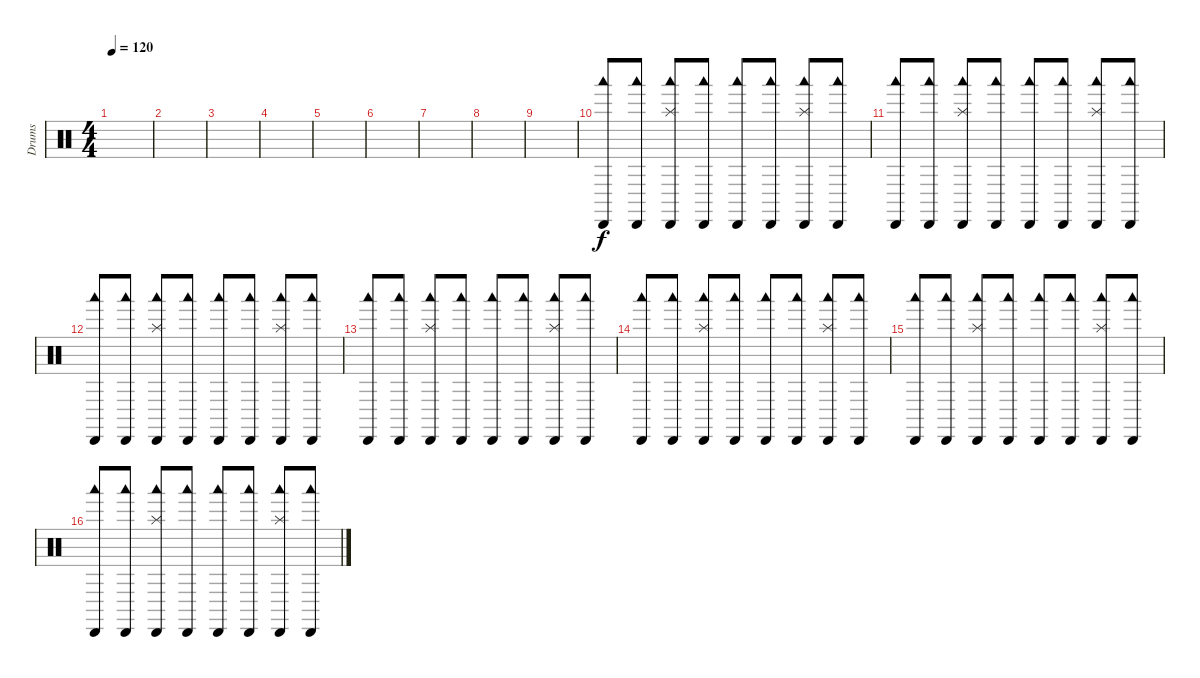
\track ("Drums" "Drums") {instrument percussion}
\staff {score}
\articulation defaults
\ts (4 4)
\tempo 120
\clef neutral
\ks c
|
|
|
|
|
|
|
|
|
("Woodblock low (hit)" "Cabasa (hit)").8 ("Woodblock low (hit)" "Cabasa (hit)").8 ("Woodblock low (hit)" "Splash (hit)" "Cabasa (hit)").8 ("Woodblock low (hit)" "Cabasa (hit)").8 ("Woodblock low (hit)" "Cabasa (hit)").8 ("Woodblock low (hit)" "Cabasa (hit)").8 ("Woodblock low (hit)" "Splash (hit)" "Cabasa (hit)").8 ("Woodblock low (hit)" "Cabasa (hit)").8 |
("Woodblock low (hit)" "Cabasa (hit)").8 ("Woodblock low (hit)" "Cabasa (hit)").8 ("Woodblock low (hit)" "Splash (hit)" "Cabasa (hit)").8 ("Woodblock low (hit)" "Cabasa (hit)").8 ("Woodblock low (hit)" "Cabasa (hit)").8 ("Woodblock low (hit)" "Cabasa (hit)").8 ("Woodblock low (hit)" "Splash (hit)" "Cabasa (hit)").8 ("Woodblock low (hit)" "Cabasa (hit)").8 |
("Woodblock low (hit)" "Cabasa (hit)").8 ("Woodblock low (hit)" "Cabasa (hit)").8 ("Woodblock low (hit)" "Splash (hit)" "Cabasa (hit)").8 ("Woodblock low (hit)" "Cabasa (hit)").8 ("Woodblock low (hit)" "Cabasa (hit)").8 ("Woodblock low (hit)" "Cabasa (hit)").8 ("Woodblock low (hit)" "Splash (hit)" "Cabasa (hit)").8 ("Woodblock low (hit)" "Cabasa (hit)").8 |
("Woodblock low (hit)" "Cabasa (hit)").8 ("Woodblock low (hit)" "Cabasa (hit)").8 ("Woodblock low (hit)" "Splash (hit)" "Cabasa (hit)").8 ("Woodblock low (hit)" "Cabasa (hit)").8 ("Woodblock low (hit)" "Cabasa (hit)").8 ("Woodblock low (hit)" "Cabasa (hit)").8 ("Woodblock low (hit)" "Splash (hit)" "Cabasa (hit)").8 ("Woodblock low (hit)" "Cabasa (hit)").8 |
("Woodblock low (hit)" "Cabasa (hit)").8 ("Woodblock low (hit)" "Cabasa (hit)").8 ("Woodblock low (hit)" "Splash (hit)" "Cabasa (hit)").8 ("Woodblock low (hit)" "Cabasa (hit)").8 ("Woodblock low (hit)" "Cabasa (hit)").8 ("Woodblock low (hit)" "Cabasa (hit)").8 ("Woodblock low (hit)" "Splash (hit)" "Cabasa (hit)").8 ("Woodblock low (hit)" "Cabasa (hit)").8 |
("Woodblock low (hit)" "Cabasa (hit)").8 ("Woodblock low (hit)" "Cabasa (hit)").8 ("Woodblock low (hit)" "Splash (hit)" "Cabasa (hit)").8 ("Woodblock low (hit)" "Cabasa (hit)").8 ("Woodblock low (hit)" "Cabasa (hit)").8 ("Woodblock low (hit)" "Cabasa (hit)").8 ("Woodblock low (hit)" "Splash (hit)" "Cabasa (hit)").8 ("Woodblock low (hit)" "Cabasa (hit)").8 |
("Woodblock low (hit)" "Cabasa (hit)").8 ("Woodblock low (hit)" "Cabasa (hit)").8 ("Woodblock low (hit)" "Splash (hit)" "Cabasa (hit)").8 ("Woodblock low (hit)" "Cabasa (hit)").8 ("Woodblock low (hit)" "Cabasa (hit)").8 ("Woodblock low (hit)" "Cabasa (hit)").8 ("Woodblock low (hit)" "Splash (hit)" "Cabasa (hit)").8 ("Woodblock low (hit)" "Cabasa (hit)").8
